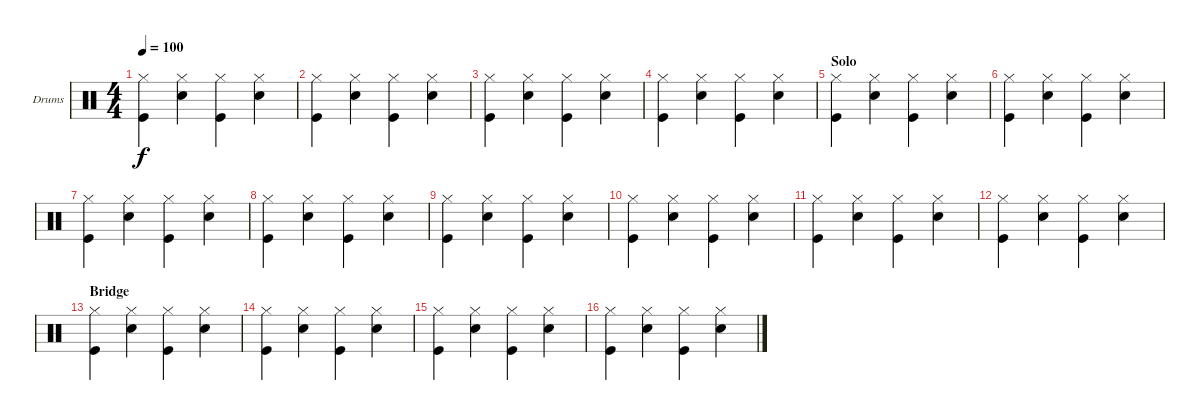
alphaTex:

\defaultSystemsLayout 4
\bracketExtendMode groupsimilarinstruments
\firstSystemTrackNameOrientation horizontal
\otherSystemsTrackNameOrientation horizontal
\track ("Drumkit" "Drums") {instrument percussion}
\staff {score}
\articulation defaults
\ts (4 4)
\tempo 100
\clef neutral
\ks c
("Kick (hit)" "Hi-Hat (closed)").4{dy f} ("Snare (hit) 2" "Hi-Hat (closed)").4 ("Hi-Hat (closed)" "Kick (hit)").4 ("Hi-Hat (closed)" "Snare (hit) 2").4 |
("Kick (hit)" "Hi-Hat (closed)").4 ("Snare (hit) 2" "Hi-Hat (closed)").4 ("Hi-Hat (closed)" "Kick (hit)").4 ("Hi-Hat (closed)" "Snare (hit) 2").4 |
("Kick (hit)" "Hi-Hat (closed)").4 ("Snare (hit) 2" "Hi-Hat (closed)").4 ("Hi-Hat (closed)" "Kick (hit)").4 ("Hi-Hat (closed)" "Snare (hit) 2").4 |
("Kick (hit)" "Hi-Hat (closed)").4 ("Snare (hit) 2" "Hi-Hat (closed)").4 ("Hi-Hat (closed)" "Kick (hit)").4 ("Hi-Hat (closed)" "Snare (hit) 2").4 |
\section ("" "Solo")
("Kick (hit)" "Hi-Hat (closed)").4 ("Snare (hit) 2" "Hi-Hat (closed)").4 ("Hi-Hat (closed)" "Kick (hit)").4 ("Hi-Hat (closed)" "Snare (hit) 2").4 |
("Kick (hit)" "Hi-Hat (closed)").4 ("Snare (hit) 2" "Hi-Hat (closed)").4 ("Hi-Hat (closed)" "Kick (hit)").4 ("Hi-Hat (closed)" "Snare (hit) 2").4 |
("Kick (hit)" "Hi-Hat (closed)").4 ("Snare (hit) 2" "Hi-Hat (closed)").4 ("Hi-Hat (closed)" "Kick (hit)").4 ("Hi-Hat (closed)" "Snare (hit) 2").4 |
("Kick (hit)" "Hi-Hat (closed)").4 ("Snare (hit) 2" "Hi-Hat (closed)").4 ("Hi-Hat (closed)" "Kick (hit)").4 ("Hi-Hat (closed)" "Snare (hit) 2").4 |
("Kick (hit)" "Hi-Hat (closed)").4 ("Snare (hit) 2" "Hi-Hat (closed)").4 ("Hi-Hat (closed)" "Kick (hit)").4 ("Hi-Hat (closed)" "Snare (hit) 2").4 |
("Kick (hit)" "Hi-Hat (closed)").4 ("Snare (hit) 2" "Hi-Hat (closed)").4 ("Hi-Hat (closed)" "Kick (hit)").4 ("Hi-Hat (closed)" "Snare (hit) 2").4 |
("Kick (hit)" "Hi-Hat (closed)").4 ("Snare (hit) 2" "Hi-Hat (closed)").4 ("Hi-Hat (closed)" "Kick (hit)").4 ("Hi-Hat (closed)" "Snare (hit) 2").4 |
("Kick (hit)" "Hi-Hat (closed)").4 ("Snare (hit) 2" "Hi-Hat (closed)").4 ("Hi-Hat (closed)" "Kick (hit)").4 ("Hi-Hat (closed)" "Snare (hit) 2").4 |
\section ("" "Bridge")
("Kick (hit)" "Hi-Hat (closed)").4 ("Snare (hit) 2" "Hi-Hat (closed)").4 ("Hi-Hat (closed)" "Kick (hit)").4 ("Hi-Hat (closed)" "Snare (hit) 2").4 |
("Kick (hit)" "Hi-Hat (closed)").4 ("Snare (hit) 2" "Hi-Hat (closed)").4 ("Hi-Hat (closed)" "Kick (hit)").4 ("Hi-Hat (closed)" "Snare (hit) 2").4 |
("Kick (hit)" "Hi-Hat (closed)").4 ("Snare (hit) 2" "Hi-Hat (closed)").4 ("Hi-Hat (closed)" "Kick (hit)").4 ("Hi-Hat (closed)" "Snare (hit) 2").4 |
("Kick (hit)" "Hi-Hat (closed)").4 ("Snare (hit) 2" "Hi-Hat (closed)").4 ("Hi-Hat (closed)" "Kick (hit)").4 ("Hi-Hat (closed)" "Snare (hit) 2").4
